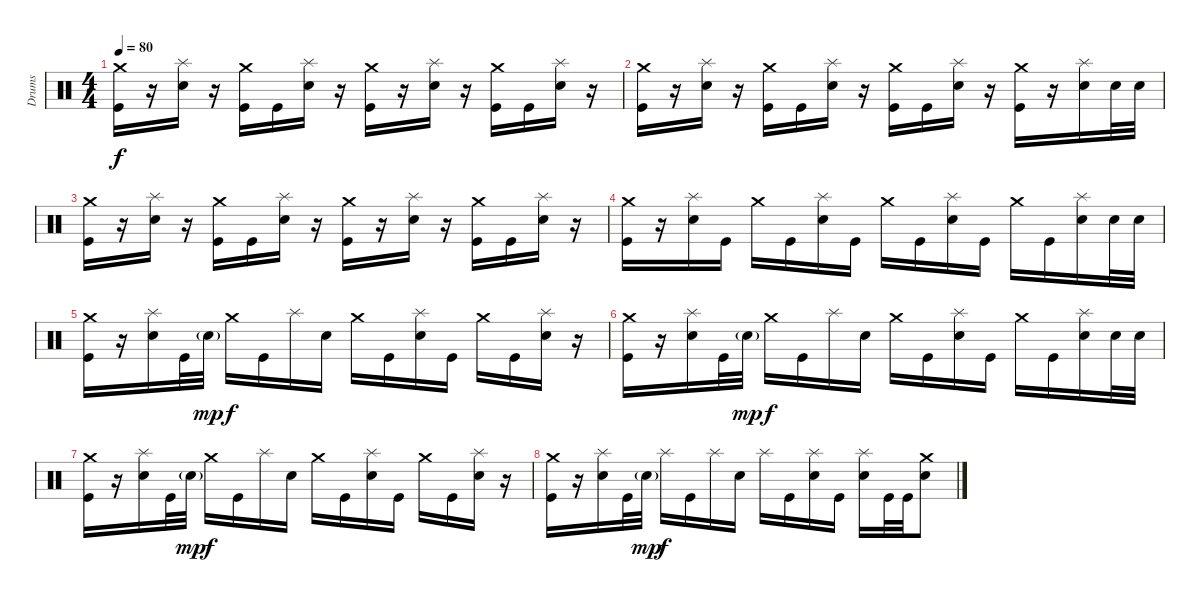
\track ("Drums" "Drums") {instrument percussion}
\staff {score}
\articulation defaults
\ts (4 4)
\tempo 80
\clef neutral
\ks c
("Crash medium (hit)" "Kick (hit)").16{dy f} r.16 ("Splash (hit)" "Electric Snare (hit)").16 r.16 ("Crash medium (hit)" "Kick (hit)").16 "Kick (hit)".16 ("Splash (hit)" "Electric Snare (hit)").16 r.16 ("Crash medium (hit)" "Kick (hit)").16 r.16 ("Splash (hit)" "Electric Snare (hit)").16 r.16 ("Crash medium (hit)" "Kick (hit)").16 "Kick (hit)".16 ("Splash (hit)" "Electric Snare (hit)").16 r.16 |
("Crash medium (hit)" "Kick (hit)").16 r.16 ("Splash (hit)" "Electric Snare (hit)").16 r.16 ("Crash medium (hit)" "Kick (hit)").16 "Kick (hit)".16 ("Splash (hit)" "Electric Snare (hit)").16 r.16 ("Crash medium (hit)" "Kick (hit)").16 "Kick (hit)".16 ("Splash (hit)" "Electric Snare (hit)").16 r.16 ("Crash medium (hit)" "Kick (hit)").16 r.16 ("Splash (hit)" "Electric Snare (hit)").16 "Electric Snare (hit)".32 "Electric Snare (hit)".32 |
("Crash medium (hit)" "Kick (hit)").16 r.16 ("Splash (hit)" "Electric Snare (hit)").16 r.16 ("Crash medium (hit)" "Kick (hit)").16 "Kick (hit)".16 ("Splash (hit)" "Electric Snare (hit)").16 r.16 ("Crash medium (hit)" "Kick (hit)").16 r.16 ("Splash (hit)" "Electric Snare (hit)").16 r.16 ("Crash medium (hit)" "Kick (hit)").16 "Kick (hit)".16 ("Splash (hit)" "Electric Snare (hit)").16 r.16 |
("Crash medium (hit)" "Kick (hit)").16 r.16 ("Splash (hit)" "Electric Snare (hit)").16 "Kick (hit)".16 "Crash medium (hit)".16 "Kick (hit)".16 ("Splash (hit)" "Electric Snare (hit)").16 "Kick (hit)".16 "Crash medium (hit)".16 "Kick (hit)".16 ("Splash (hit)" "Electric Snare (hit)").16 "Kick (hit)".16 "Crash medium (hit)".16 "Kick (hit)".16 ("Splash (hit)" "Electric Snare (hit)").16 "Electric Snare (hit)".32 "Electric Snare (hit)".32 |
("Crash medium (hit)" "Kick (hit)").16 r.16 ("Splash (hit)" "Electric Snare (hit)").16 "Kick (hit)".32 "Electric Snare (hit)"{g}.32{dy mp} "Crash medium (hit)".16{dy f} "Kick (hit)".16 "Splash (hit)".16 "Electric Snare (hit)".16 "Crash medium (hit)".16 "Kick (hit)".16 ("Splash (hit)" "Electric Snare (hit)").16 "Kick (hit)".16 "Crash medium (hit)".16 "Kick (hit)".16 ("Splash (hit)" "Electric Snare (hit)").16 r.16 |
("Crash medium (hit)" "Kick (hit)").16 r.16 ("Splash (hit)" "Electric Snare (hit)").16 "Kick (hit)".32 "Electric Snare (hit)"{g}.32{dy mp} "Crash medium (hit)".16{dy f} "Kick (hit)".16 "Splash (hit)".16 "Electric Snare (hit)".16 "Crash medium (hit)".16 "Kick (hit)".16 ("Splash (hit)" "Electric Snare (hit)").16 "Kick (hit)".16 "Crash medium (hit)".16 "Kick (hit)".16 ("Splash (hit)" "Electric Snare (hit)").16 "Electric Snare (hit)".32 "Electric Snare (hit)".32 |
("Crash medium (hit)" "Kick (hit)").16 r.16 ("Splash (hit)" "Electric Snare (hit)").16 "Kick (hit)".32 "Electric Snare (hit)"{g}.32{dy mp} "Crash medium (hit)".16{dy f} "Kick (hit)".16 "Splash (hit)".16 "Electric Snare (hit)".16 "Crash medium (hit)".16 "Kick (hit)".16 ("Splash (hit)" "Electric Snare (hit)").16 "Kick (hit)".16 "Crash medium (hit)".16 "Kick (hit)".16 ("Splash (hit)" "Electric Snare (hit)").16 r.16 |
("Crash medium (hit)" "Kick (hit)").16 r.16 ("Splash (hit)" "Electric Snare (hit)").16 "Kick (hit)".32 "Electric Snare (hit)"{g}.32{dy mp} "Splash (hit)".16{dy f} "Kick (hit)".16 "Splash (hit)".16 "Electric Snare (hit)".16 "Splash (hit)".16 "Kick (hit)".16 ("Splash (hit)" "Electric Snare (hit)").16 "Kick (hit)".16 ("Splash (hit)" "Electric Snare (hit)").16 "Kick (hit)".32 "Kick (hit)".32 ("Crash medium (hit)" "Electric Snare (hit)").8
